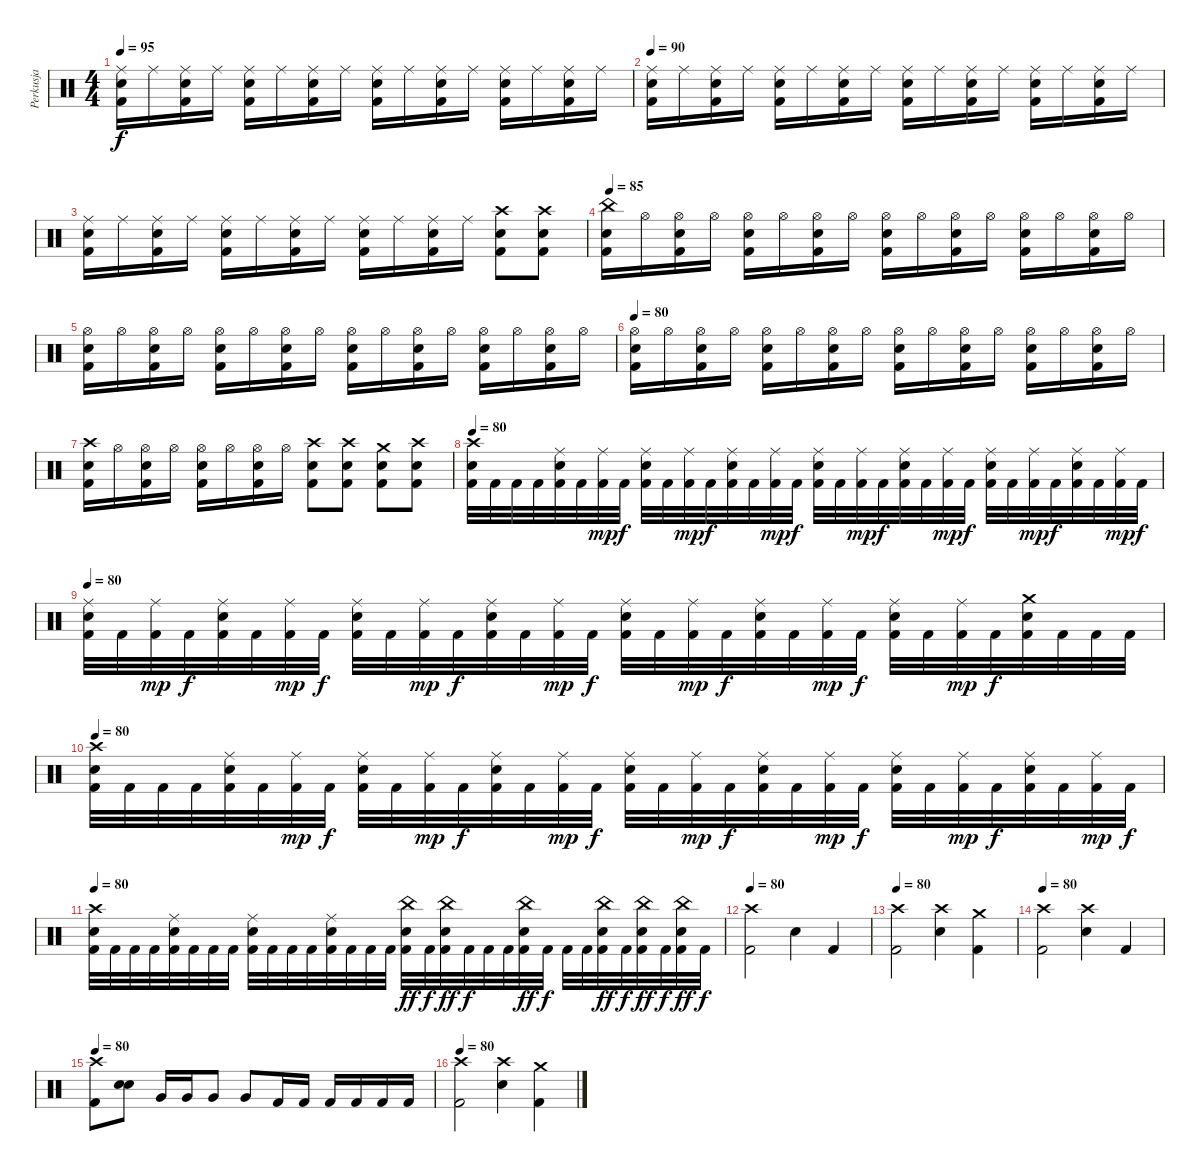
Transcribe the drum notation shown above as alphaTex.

\track ("Perkusja" "Perkusja") {instrument percussion}
\staff {score}
\articulation defaults
\ts (4 4)
\tempo 95
\clef neutral
\ks c
("Ride (middle)" "Snare (hit) 2" "Kick (hit) 2").16{dy f} "Ride (middle)".16 ("Ride (middle)" "Snare (hit) 2" "Kick (hit) 2").16 "Ride (middle)".16 ("Ride (middle)" "Snare (hit) 2" "Kick (hit) 2").16 "Ride (middle)".16 ("Ride (middle)" "Snare (hit) 2" "Kick (hit) 2").16 "Ride (middle)".16 ("Ride (middle)" "Snare (hit) 2" "Kick (hit) 2").16 "Ride (middle)".16 ("Ride (middle)" "Snare (hit) 2" "Kick (hit) 2").16 "Ride (middle)".16 ("Ride (middle)" "Snare (hit) 2" "Kick (hit) 2").16 "Ride (middle)".16 ("Ride (middle)" "Snare (hit) 2" "Kick (hit) 2").16 "Ride (middle)".16 |
\tempo 90
("Ride (middle)" "Snare (hit) 2" "Kick (hit) 2").16 "Ride (middle)".16 ("Ride (middle)" "Snare (hit) 2" "Kick (hit) 2").16 "Ride (middle)".16 ("Ride (middle)" "Snare (hit) 2" "Kick (hit) 2").16 "Ride (middle)".16 ("Ride (middle)" "Snare (hit) 2" "Kick (hit) 2").16 "Ride (middle)".16 ("Ride (middle)" "Snare (hit) 2" "Kick (hit) 2").16 "Ride (middle)".16 ("Ride (middle)" "Snare (hit) 2" "Kick (hit) 2").16 "Ride (middle)".16 ("Ride (middle)" "Snare (hit) 2" "Kick (hit) 2").16 "Ride (middle)".16 ("Ride (middle)" "Snare (hit) 2" "Kick (hit) 2").16 "Ride (middle)".16 |
("Ride (middle)" "Snare (hit) 2" "Kick (hit) 2").16 "Ride (middle)".16 ("Ride (middle)" "Snare (hit) 2" "Kick (hit) 2").16 "Ride (middle)".16 ("Ride (middle)" "Snare (hit) 2" "Kick (hit) 2").16 "Ride (middle)".16 ("Ride (middle)" "Snare (hit) 2" "Kick (hit) 2").16 "Ride (middle)".16 ("Ride (middle)" "Snare (hit) 2" "Kick (hit) 2").16 "Ride (middle)".16 ("Ride (middle)" "Snare (hit) 2" "Kick (hit) 2").16 "Ride (middle)".16 ("Crash high (hit)" "Snare (hit) 2" "Kick (hit) 2").8 ("Crash high (hit)" "Snare (hit) 2" "Kick (hit) 2").8 |
\tempo 85
("China (hit)" "Snare (hit) 2" "Kick (hit) 2").16 "Hi-Hat (open)".16 ("Hi-Hat (open)" "Snare (hit) 2" "Kick (hit) 2").16 "Hi-Hat (open)".16 ("Hi-Hat (open)" "Snare (hit) 2" "Kick (hit) 2").16 "Hi-Hat (open)".16 ("Hi-Hat (open)" "Snare (hit) 2" "Kick (hit) 2").16 "Hi-Hat (open)".16 ("Hi-Hat (open)" "Snare (hit) 2" "Kick (hit) 2").16 "Hi-Hat (open)".16 ("Hi-Hat (open)" "Snare (hit) 2" "Kick (hit) 2").16 "Hi-Hat (open)".16 ("Hi-Hat (open)" "Snare (hit) 2" "Kick (hit) 2").16 "Hi-Hat (open)".16 ("Hi-Hat (open)" "Snare (hit) 2" "Kick (hit) 2").16 "Hi-Hat (open)".16 |
("Hi-Hat (open)" "Snare (hit) 2" "Kick (hit) 2").16 "Hi-Hat (open)".16 ("Hi-Hat (open)" "Snare (hit) 2" "Kick (hit) 2").16 "Hi-Hat (open)".16 ("Hi-Hat (open)" "Snare (hit) 2" "Kick (hit) 2").16 "Hi-Hat (open)".16 ("Hi-Hat (open)" "Snare (hit) 2" "Kick (hit) 2").16 "Hi-Hat (open)".16 ("Hi-Hat (open)" "Snare (hit) 2" "Kick (hit) 2").16 "Hi-Hat (open)".16 ("Hi-Hat (open)" "Snare (hit) 2" "Kick (hit) 2").16 "Hi-Hat (open)".16 ("Hi-Hat (open)" "Snare (hit) 2" "Kick (hit) 2").16 "Hi-Hat (open)".16 ("Hi-Hat (open)" "Snare (hit) 2" "Kick (hit) 2").16 "Hi-Hat (open)".16 |
\tempo 80
("Hi-Hat (open)" "Snare (hit) 2" "Kick (hit) 2").16 "Hi-Hat (open)".16 ("Hi-Hat (open)" "Snare (hit) 2" "Kick (hit) 2").16 "Hi-Hat (open)".16 ("Hi-Hat (open)" "Snare (hit) 2" "Kick (hit) 2").16 "Hi-Hat (open)".16 ("Hi-Hat (open)" "Snare (hit) 2" "Kick (hit) 2").16 "Hi-Hat (open)".16 ("Hi-Hat (open)" "Snare (hit) 2" "Kick (hit) 2").16 "Hi-Hat (open)".16 ("Hi-Hat (open)" "Snare (hit) 2" "Kick (hit) 2").16 "Hi-Hat (open)".16 ("Hi-Hat (open)" "Snare (hit) 2" "Kick (hit) 2").16 "Hi-Hat (open)".16 ("Hi-Hat (open)" "Snare (hit) 2" "Kick (hit) 2").16 "Hi-Hat (open)".16 |
("Crash high (hit)" "Snare (hit) 2" "Kick (hit) 2").16 "Hi-Hat (open)".16 ("Hi-Hat (open)" "Snare (hit) 2" "Kick (hit) 2").16 "Hi-Hat (open)".16 ("Hi-Hat (open)" "Snare (hit) 2" "Kick (hit) 2").16 "Hi-Hat (open)".16 ("Hi-Hat (open)" "Snare (hit) 2" "Kick (hit) 2").16 "Hi-Hat (open)".16 ("Crash high (hit)" "Snare (hit) 2" "Kick (hit) 2").8 ("Crash high (hit)" "Snare (hit) 2" "Kick (hit) 2").8 ("Crash medium (hit)" "Snare (hit) 2" "Kick (hit) 2").8 ("Crash high (hit)" "Snare (hit) 2" "Kick (hit) 2").8 |
\tempo 80
("Crash high (hit)" "Snare (hit) 2" "Kick (hit) 2").32 "Kick (hit) 2".32 "Kick (hit) 2".32 "Kick (hit) 2".32 ("Ride (middle)" "Snare (hit) 2" "Kick (hit) 2").32 "Kick (hit) 2".32 ("Ride (middle)" "Kick (hit) 2").32{dy mp} "Kick (hit) 2".32{dy f} ("Ride (middle)" "Snare (hit) 2" "Kick (hit) 2").32 "Kick (hit) 2".32 ("Ride (middle)" "Kick (hit) 2").32{dy mp} "Kick (hit) 2".32{dy f} ("Ride (middle)" "Snare (hit) 2" "Kick (hit) 2").32 "Kick (hit) 2".32 ("Ride (middle)" "Kick (hit) 2").32{dy mp} "Kick (hit) 2".32{dy f} ("Ride (middle)" "Snare (hit) 2" "Kick (hit) 2").32 "Kick (hit) 2".32 ("Ride (middle)" "Kick (hit) 2").32{dy mp} "Kick (hit) 2".32{dy f} ("Ride (middle)" "Snare (hit) 2" "Kick (hit) 2").32 "Kick (hit) 2".32 ("Ride (middle)" "Kick (hit) 2").32{dy mp} "Kick (hit) 2".32{dy f} ("Ride (middle)" "Snare (hit) 2" "Kick (hit) 2").32 "Kick (hit) 2".32 ("Ride (middle)" "Kick (hit) 2").32{dy mp} "Kick (hit) 2".32{dy f} ("Ride (middle)" "Snare (hit) 2" "Kick (hit) 2").32 "Kick (hit) 2".32 ("Ride (middle)" "Kick (hit) 2").32{dy mp} "Kick (hit) 2".32{dy f} |
\tempo 80
("Ride (middle)" "Snare (hit) 2" "Kick (hit) 2").32 "Kick (hit) 2".32 ("Ride (middle)" "Kick (hit) 2").32{dy mp} "Kick (hit) 2".32{dy f} ("Ride (middle)" "Snare (hit) 2" "Kick (hit) 2").32 "Kick (hit) 2".32 ("Ride (middle)" "Kick (hit) 2").32{dy mp} "Kick (hit) 2".32{dy f} ("Ride (middle)" "Snare (hit) 2" "Kick (hit) 2").32 "Kick (hit) 2".32 ("Ride (middle)" "Kick (hit) 2").32{dy mp} "Kick (hit) 2".32{dy f} ("Ride (middle)" "Snare (hit) 2" "Kick (hit) 2").32 "Kick (hit) 2".32 ("Ride (middle)" "Kick (hit) 2").32{dy mp} "Kick (hit) 2".32{dy f} ("Ride (middle)" "Snare (hit) 2" "Kick (hit) 2").32 "Kick (hit) 2".32 ("Ride (middle)" "Kick (hit) 2").32{dy mp} "Kick (hit) 2".32{dy f} ("Ride (middle)" "Snare (hit) 2" "Kick (hit) 2").32 "Kick (hit) 2".32 ("Ride (middle)" "Kick (hit) 2").32{dy mp} "Kick (hit) 2".32{dy f} ("Ride (middle)" "Snare (hit) 2" "Kick (hit) 2").32 "Kick (hit) 2".32 ("Ride (middle)" "Kick (hit) 2").32{dy mp} "Kick (hit) 2".32{dy f} ("Crash medium (hit)" "Snare (hit) 2" "Kick (hit) 2").32 "Kick (hit) 2".32 "Kick (hit) 2".32 "Kick (hit) 2".32 |
\tempo 80
("Crash high (hit)" "Snare (hit) 2" "Kick (hit) 2").32 "Kick (hit) 2".32 "Kick (hit) 2".32 "Kick (hit) 2".32 ("Ride (middle)" "Snare (hit) 2" "Kick (hit) 2").32 "Kick (hit) 2".32 ("Ride (middle)" "Kick (hit) 2").32{dy mp} "Kick (hit) 2".32{dy f} ("Ride (middle)" "Snare (hit) 2" "Kick (hit) 2").32 "Kick (hit) 2".32 ("Ride (middle)" "Kick (hit) 2").32{dy mp} "Kick (hit) 2".32{dy f} ("Ride (middle)" "Snare (hit) 2" "Kick (hit) 2").32 "Kick (hit) 2".32 ("Ride (middle)" "Kick (hit) 2").32{dy mp} "Kick (hit) 2".32{dy f} ("Ride (middle)" "Snare (hit) 2" "Kick (hit) 2").32 "Kick (hit) 2".32 ("Ride (middle)" "Kick (hit) 2").32{dy mp} "Kick (hit) 2".32{dy f} ("Ride (middle)" "Snare (hit) 2" "Kick (hit) 2").32 "Kick (hit) 2".32 ("Ride (middle)" "Kick (hit) 2").32{dy mp} "Kick (hit) 2".32{dy f} ("Ride (middle)" "Snare (hit) 2" "Kick (hit) 2").32 "Kick (hit) 2".32 ("Ride (middle)" "Kick (hit) 2").32{dy mp} "Kick (hit) 2".32{dy f} ("Ride (middle)" "Snare (hit) 2" "Kick (hit) 2").32 "Kick (hit) 2".32 ("Ride (middle)" "Kick (hit) 2").32{dy mp} "Kick (hit) 2".32{dy f} |
\tempo 80
("Crash high (hit)" "Snare (hit) 2" "Kick (hit) 2").32 "Kick (hit) 2".32 "Kick (hit) 2".32 "Kick (hit) 2".32 ("Ride (middle)" "Snare (hit) 2" "Kick (hit) 2").32 "Kick (hit) 2".32 "Kick (hit) 2".32 "Kick (hit) 2".32 ("Ride (middle)" "Snare (hit) 2" "Kick (hit) 2").32 "Kick (hit) 2".32 "Kick (hit) 2".32 "Kick (hit) 2".32 ("Ride (middle)" "Snare (hit) 2" "Kick (hit) 2").32 "Kick (hit) 2".32 "Kick (hit) 2".32 "Kick (hit) 2".32 ("China (hit)" "Snare (hit) 2" "Kick (hit) 2").32{dy ff} "Kick (hit) 2".32{dy f} ("China (hit)" "Snare (hit) 2" "Kick (hit) 2").32{dy ff} "Kick (hit) 2".32{dy f} "Kick (hit) 2".32 "Kick (hit) 2".32 ("China (hit)" "Snare (hit) 2" "Kick (hit) 2").32{dy ff} "Kick (hit) 2".32{dy f} "Kick (hit) 2".32 "Kick (hit) 2".32 ("China (hit)" "Snare (hit) 2" "Kick (hit) 2").32{dy ff} "Kick (hit) 2".32{dy f} ("China (hit)" "Snare (hit) 2" "Kick (hit) 2").32{dy ff} "Kick (hit) 2".32{dy f} ("China (hit)" "Snare (hit) 2" "Kick (hit) 2").32{dy ff} "Kick (hit) 2".32{dy f} |
\tempo 80
("Crash high (hit)" "Kick (hit) 2").2 "Snare (hit) 2".4 "Kick (hit) 2".4 |
\tempo 80
("Crash high (hit)" "Kick (hit) 2").2 ("Crash high (hit)" "Snare (hit) 2").4 ("Crash medium (hit)" "Kick (hit) 2").4 |
\tempo 80
("Crash high (hit)" "Kick (hit) 2").2 ("Crash high (hit)" "Snare (hit) 2").4 "Kick (hit) 2".4 |
\tempo 80
("Crash high (hit)" "Kick (hit) 2").8 ("Snare (hit) 2" "Snare (hit) 2").8{bd 120} "Very Low Tom (hit)".16 "Very Low Tom (hit)".16 "Very Low Tom (hit)".8 "Very Low Tom (hit)".8 "Kick (hit) 2".16 "Kick (hit) 2".16 "Kick (hit) 2".16 "Kick (hit) 2".16 "Kick (hit) 2".16 "Kick (hit) 2".16 |
\tempo 80
("Crash high (hit)" "Kick (hit) 2").2 ("Crash high (hit)" "Snare (hit) 2").4 ("Crash medium (hit)" "Kick (hit) 2").4
